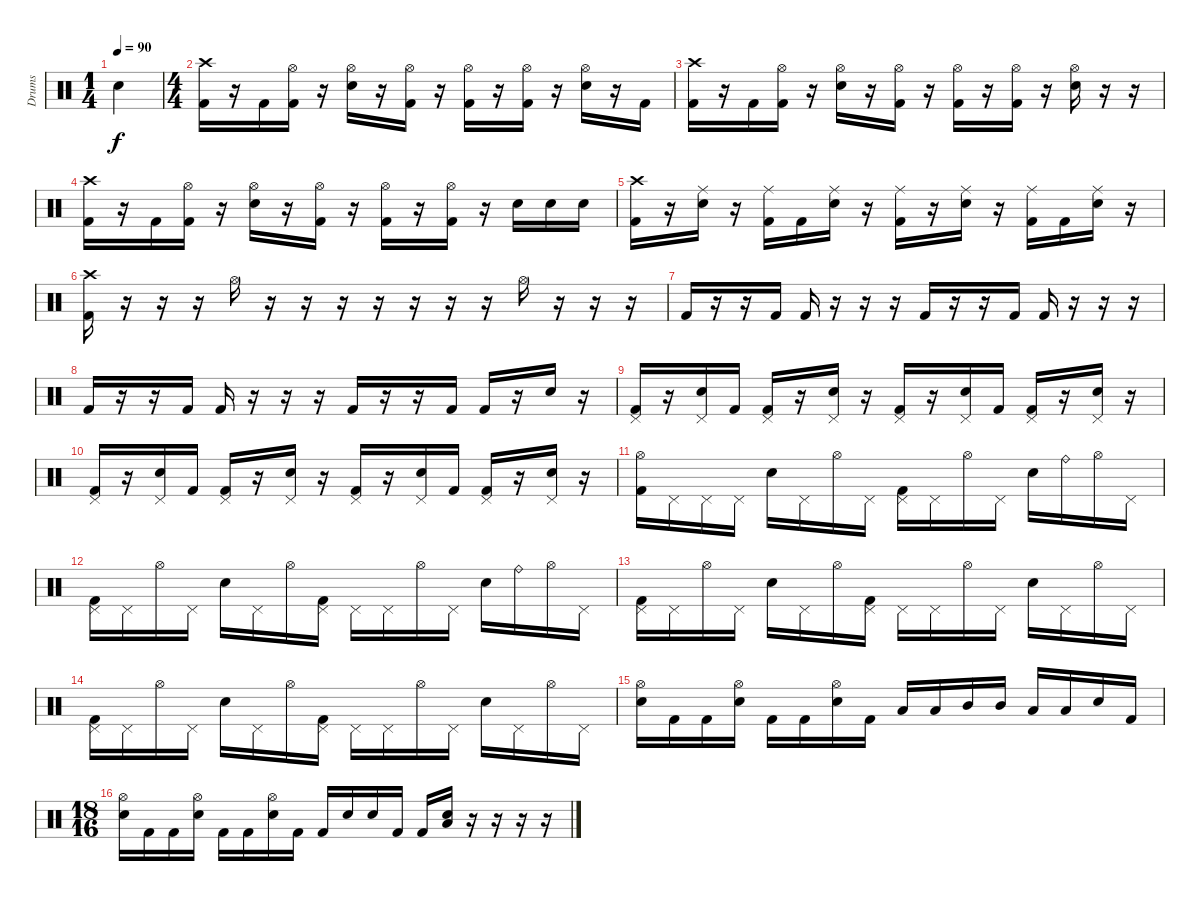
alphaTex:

\track ("Drums" "Drums") {instrument percussion}
\staff {score}
\articulation defaults
\ts (1 4)
\tempo 90
\clef neutral
\ks c "Electric Snare (hit)".4{dy f}
|
\ts (4 4)
("Crash high (hit)" "Kick (hit) 2").16 r.16 "Kick (hit) 2".16 ("Hi-Hat (open)" "Kick (hit) 2").16 r.16 ("Hi-Hat (open)" "Electric Snare (hit)").16 r.16 ("Hi-Hat (open)" "Kick (hit) 2").16 r.16 ("Hi-Hat (open)" "Kick (hit) 2").16 r.16 ("Hi-Hat (open)" "Kick (hit) 2").16 r.16 ("Hi-Hat (open)" "Electric Snare (hit)").16 r.16 "Kick (hit) 2".16 |
("Crash high (hit)" "Kick (hit) 2").16 r.16 "Kick (hit) 2".16 ("Hi-Hat (open)" "Kick (hit) 2").16 r.16 ("Hi-Hat (open)" "Electric Snare (hit)").16 r.16 ("Hi-Hat (open)" "Kick (hit) 2").16 r.16 ("Hi-Hat (open)" "Kick (hit) 2").16 r.16 ("Hi-Hat (open)" "Kick (hit) 2").16 r.16 ("Hi-Hat (open)" "Electric Snare (hit)").16 r.16 r.16 |
("Crash high (hit)" "Kick (hit) 2").16 r.16 "Kick (hit) 2".16 ("Hi-Hat (open)" "Kick (hit) 2").16 r.16 ("Hi-Hat (open)" "Electric Snare (hit)").16 r.16 ("Hi-Hat (open)" "Kick (hit) 2").16 r.16 ("Hi-Hat (open)" "Kick (hit) 2").16 r.16 ("Hi-Hat (open)" "Kick (hit) 2").16 r.16 "Electric Snare (hit)".16 "Electric Snare (hit)".16 "Electric Snare (hit)".16 |
("Crash high (hit)" "Kick (hit) 2").16 r.16 ("Ride (middle)" "Electric Snare (hit)").16 r.16 ("Ride (middle)" "Kick (hit) 2").16 "Kick (hit) 2".16 ("Ride (middle)" "Electric Snare (hit)").16 r.16 ("Ride (middle)" "Kick (hit) 2").16 r.16 ("Ride (middle)" "Electric Snare (hit)").16 r.16 ("Ride (middle)" "Kick (hit) 2").16 "Kick (hit) 2".16 ("Ride (middle)" "Electric Snare (hit)").16 r.16 |
("Crash high (hit)" "Kick (hit) 2").16 r.16 r.16 r.16 "Hi-Hat (open)".16 r.16 r.16 r.16 r.16 r.16 r.16 r.16 "Hi-Hat (open)".16 r.16 r.16 r.16 |
"Kick (hit) 2".16 r.16 r.16 "Kick (hit) 2".16 "Kick (hit) 2".16 r.16 r.16 r.16 "Kick (hit) 2".16 r.16 r.16 "Kick (hit) 2".16 "Kick (hit) 2".16 r.16 r.16 r.16 |
"Kick (hit) 2".16 r.16 r.16 "Kick (hit) 2".16 "Kick (hit) 2".16 r.16 r.16 r.16 "Kick (hit) 2".16 r.16 r.16 "Kick (hit) 2".16 "Kick (hit) 2".16 r.16 "Electric Snare (hit)".16 r.16 |
("Pedal Hi-Hat (hit)" "Kick (hit) 2").16 r.16 ("Pedal Hi-Hat (hit)" "Electric Snare (hit)").16 "Kick (hit) 2".16 ("Pedal Hi-Hat (hit)" "Kick (hit) 2").16 r.16 ("Pedal Hi-Hat (hit)" "Electric Snare (hit)").16 r.16 ("Pedal Hi-Hat (hit)" "Kick (hit) 2").16 r.16 ("Pedal Hi-Hat (hit)" "Electric Snare (hit)").16 "Kick (hit) 2".16 ("Pedal Hi-Hat (hit)" "Kick (hit) 2").16 r.16 ("Pedal Hi-Hat (hit)" "Electric Snare (hit)").16 r.16 |
("Pedal Hi-Hat (hit)" "Kick (hit) 2").16 r.16 ("Pedal Hi-Hat (hit)" "Electric Snare (hit)").16 "Kick (hit) 2".16 ("Pedal Hi-Hat (hit)" "Kick (hit) 2").16 r.16 ("Pedal Hi-Hat (hit)" "Electric Snare (hit)").16 r.16 ("Pedal Hi-Hat (hit)" "Kick (hit) 2").16 r.16 ("Pedal Hi-Hat (hit)" "Electric Snare (hit)").16 "Kick (hit) 2".16 ("Pedal Hi-Hat (hit)" "Kick (hit) 2").16 r.16 ("Pedal Hi-Hat (hit)" "Electric Snare (hit)").16 r.16 |
("Hi-Hat (open)" "Kick (hit) 2").16 "Pedal Hi-Hat (hit)".16 "Pedal Hi-Hat (hit)".16 "Pedal Hi-Hat (hit)".16 "Electric Snare (hit)".16 "Pedal Hi-Hat (hit)".16 "Hi-Hat (open)".16 "Pedal Hi-Hat (hit)".16 ("Pedal Hi-Hat (hit)" "Kick (hit) 2").16 "Pedal Hi-Hat (hit)".16 "Hi-Hat (open)".16 "Pedal Hi-Hat (hit)".16 "Electric Snare (hit)".16 "Ride (bell)".16 "Hi-Hat (open)".16 "Pedal Hi-Hat (hit)".16 |
("Pedal Hi-Hat (hit)" "Kick (hit) 2").16 "Pedal Hi-Hat (hit)".16 "Hi-Hat (open)".16 "Pedal Hi-Hat (hit)".16 "Electric Snare (hit)".16 "Pedal Hi-Hat (hit)".16 "Hi-Hat (open)".16 ("Pedal Hi-Hat (hit)" "Kick (hit) 2").16 "Pedal Hi-Hat (hit)".16 "Pedal Hi-Hat (hit)".16 "Hi-Hat (open)".16 "Pedal Hi-Hat (hit)".16 "Electric Snare (hit)".16 "Ride (bell)".16 "Hi-Hat (open)".16 "Pedal Hi-Hat (hit)".16 |
("Pedal Hi-Hat (hit)" "Kick (hit) 2").16 "Pedal Hi-Hat (hit)".16 "Hi-Hat (open)".16 "Pedal Hi-Hat (hit)".16 "Electric Snare (hit)".16 "Pedal Hi-Hat (hit)".16 "Hi-Hat (open)".16 ("Pedal Hi-Hat (hit)" "Kick (hit) 2").16 "Pedal Hi-Hat (hit)".16 "Pedal Hi-Hat (hit)".16 "Hi-Hat (open)".16 "Pedal Hi-Hat (hit)".16 "Electric Snare (hit)".16 "Pedal Hi-Hat (hit)".16 "Hi-Hat (open)".16 "Pedal Hi-Hat (hit)".16 |
("Pedal Hi-Hat (hit)" "Kick (hit) 2").16 "Pedal Hi-Hat (hit)".16 "Hi-Hat (open)".16 "Pedal Hi-Hat (hit)".16 "Electric Snare (hit)".16 "Pedal Hi-Hat (hit)".16 "Hi-Hat (open)".16 ("Pedal Hi-Hat (hit)" "Kick (hit) 2").16 "Pedal Hi-Hat (hit)".16 "Pedal Hi-Hat (hit)".16 "Hi-Hat (open)".16 "Pedal Hi-Hat (hit)".16 "Electric Snare (hit)".16 "Pedal Hi-Hat (hit)".16 "Hi-Hat (open)".16 "Pedal Hi-Hat (hit)".16 |
("Hi-Hat (open)" "Electric Snare (hit)").16 "Kick (hit) 2".16 "Kick (hit) 2".16 ("Hi-Hat (open)" "Electric Snare (hit)").16 "Kick (hit) 2".16 "Kick (hit) 2".16 ("Hi-Hat (open)" "Electric Snare (hit)").16 "Kick (hit) 2".16 "Low Tom (hit)".16 "Low Tom (hit)".16 "Mid Tom (hit)".16 "Mid Tom (hit)".16 "Low Tom (hit)".16 "Low Tom (hit)".16 "Electric Snare (hit)".16 "Kick (hit) 2".16 |
\ts (18 16)
("Hi-Hat (open)" "Electric Snare (hit)").16 "Kick (hit) 2".16 "Kick (hit) 2".16 ("Hi-Hat (open)" "Electric Snare (hit)").16 "Kick (hit) 2".16 "Kick (hit) 2".16 ("Hi-Hat (open)" "Electric Snare (hit)").16 "Kick (hit) 2".16 "Kick (hit) 2".16 "Electric Snare (hit)".16 "Electric Snare (hit)".16 "Kick (hit) 2".16 "Kick (hit) 2".16 ("Low Tom (hit)" "Electric Snare (hit)").16 r.16 r.16 r.16 r.16
